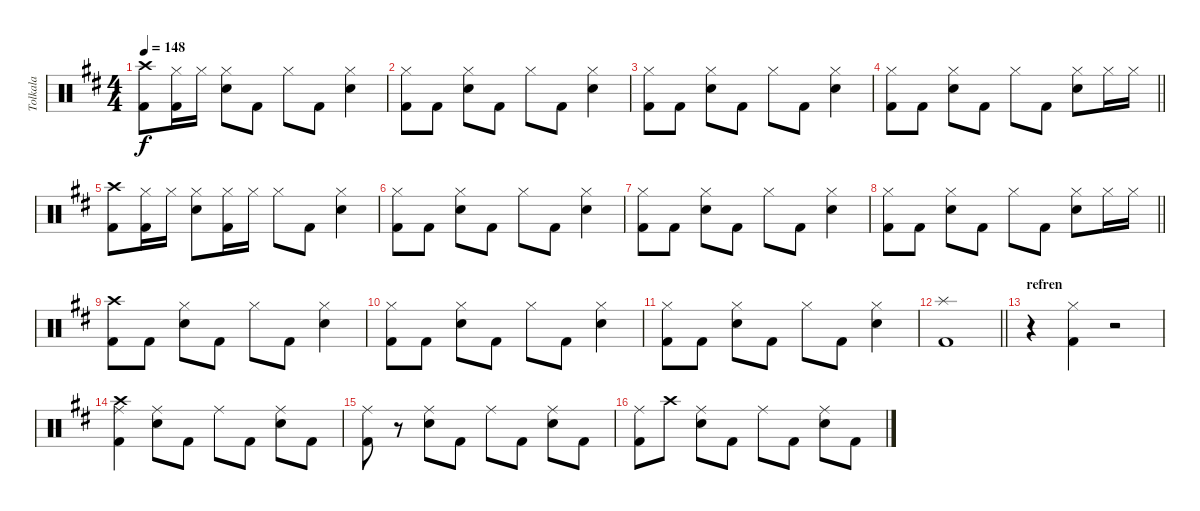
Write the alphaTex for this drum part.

\track ("Tolkala" "Tolkala") {instrument percussion}
\staff {score}
\articulation defaults
\ts (4 4)
\tempo 148
\clef neutral
\ks d
("Crash high (hit)" "Kick (hit) 2").8{dy f} ("Kick (hit) 2" "Hi-Hat (closed)").16 "Hi-Hat (closed)".16 ("Snare (hit) 2" "Hi-Hat (closed)").8 "Kick (hit) 2".8 "Hi-Hat (closed)".8 "Kick (hit) 2".8 ("Snare (hit) 2" "Hi-Hat (closed)").4 |
("Kick (hit) 2" "Hi-Hat (closed)").8 "Kick (hit) 2".8 ("Snare (hit) 2" "Hi-Hat (closed)").8 "Kick (hit) 2".8 "Hi-Hat (closed)".8 "Kick (hit) 2".8 ("Snare (hit) 2" "Hi-Hat (closed)").4 |
("Kick (hit) 2" "Hi-Hat (closed)").8 "Kick (hit) 2".8 ("Snare (hit) 2" "Hi-Hat (closed)").8 "Kick (hit) 2".8 "Hi-Hat (closed)".8 "Kick (hit) 2".8 ("Snare (hit) 2" "Hi-Hat (closed)").4 |
\barLineRight lightlight
("Kick (hit) 2" "Hi-Hat (closed)").8 "Kick (hit) 2".8 ("Snare (hit) 2" "Hi-Hat (closed)").8 "Kick (hit) 2".8 "Hi-Hat (closed)".8 "Kick (hit) 2".8 ("Snare (hit) 2" "Hi-Hat (closed)").8 "Hi-Hat (closed)".16 "Hi-Hat (closed)".16 |
("Crash high (hit)" "Kick (hit) 2").8 ("Kick (hit) 2" "Hi-Hat (closed)").16 "Hi-Hat (closed)".16 ("Snare (hit) 2" "Hi-Hat (closed)").8 ("Kick (hit) 2" "Hi-Hat (closed)").16 "Hi-Hat (closed)".16 "Hi-Hat (closed)".8 "Kick (hit) 2".8 ("Snare (hit) 2" "Hi-Hat (closed)").4 |
("Kick (hit) 2" "Hi-Hat (closed)").8 "Kick (hit) 2".8 ("Snare (hit) 2" "Hi-Hat (closed)").8 "Kick (hit) 2".8 "Hi-Hat (closed)".8 "Kick (hit) 2".8 ("Snare (hit) 2" "Hi-Hat (closed)").4 |
("Kick (hit) 2" "Hi-Hat (closed)").8 "Kick (hit) 2".8 ("Snare (hit) 2" "Hi-Hat (closed)").8 "Kick (hit) 2".8 "Hi-Hat (closed)".8 "Kick (hit) 2".8 ("Snare (hit) 2" "Hi-Hat (closed)").4 |
\barLineRight lightlight
("Kick (hit) 2" "Hi-Hat (closed)").8 "Kick (hit) 2".8 ("Snare (hit) 2" "Hi-Hat (closed)").8 "Kick (hit) 2".8 "Hi-Hat (closed)".8 "Kick (hit) 2".8 ("Snare (hit) 2" "Hi-Hat (closed)").8 "Hi-Hat (closed)".16 "Hi-Hat (closed)".16 |
("Crash high (hit)" "Kick (hit) 2").8 "Kick (hit) 2".8 ("Snare (hit) 2" "Hi-Hat (closed)").8 "Kick (hit) 2".8 "Hi-Hat (closed)".8 "Kick (hit) 2".8 ("Snare (hit) 2" "Hi-Hat (closed)").4 |
("Kick (hit) 2" "Hi-Hat (closed)").8 "Kick (hit) 2".8 ("Snare (hit) 2" "Hi-Hat (closed)").8 "Kick (hit) 2".8 "Hi-Hat (closed)".8 "Kick (hit) 2".8 ("Snare (hit) 2" "Hi-Hat (closed)").4 |
("Kick (hit) 2" "Hi-Hat (closed)").8 "Kick (hit) 2".8 ("Snare (hit) 2" "Hi-Hat (closed)").8 "Kick (hit) 2".8 "Hi-Hat (closed)".8 "Kick (hit) 2".8 ("Snare (hit) 2" "Hi-Hat (closed)").4 |
\barLineRight lightlight
("Kick (hit) 2" "Splash (hit)").1 |
\section ("" "refren")
r.4 ("Kick (hit) 2" "Hi-Hat (closed)").4 r.2 |
("Crash high (hit)" "Kick (hit) 2" "Ride (middle)").4 ("Snare (hit) 2" "Ride (middle)").8 "Kick (hit) 2".8 "Ride (middle)".8 "Kick (hit) 2".8 ("Snare (hit) 2" "Ride (middle)").8 "Kick (hit) 2".8 |
("Kick (hit) 2" "Ride (middle)").8 r.8 ("Snare (hit) 2" "Ride (middle)").8 "Kick (hit) 2".8 "Ride (middle)".8 "Kick (hit) 2".8 ("Snare (hit) 2" "Ride (middle)").8 "Kick (hit) 2".8 |
("Kick (hit) 2" "Ride (middle)").8 "Crash high (hit)".8 ("Snare (hit) 2" "Ride (middle)").8 "Kick (hit) 2".8 "Ride (middle)".8 "Kick (hit) 2".8 ("Snare (hit) 2" "Ride (middle)").8 "Kick (hit) 2".8
